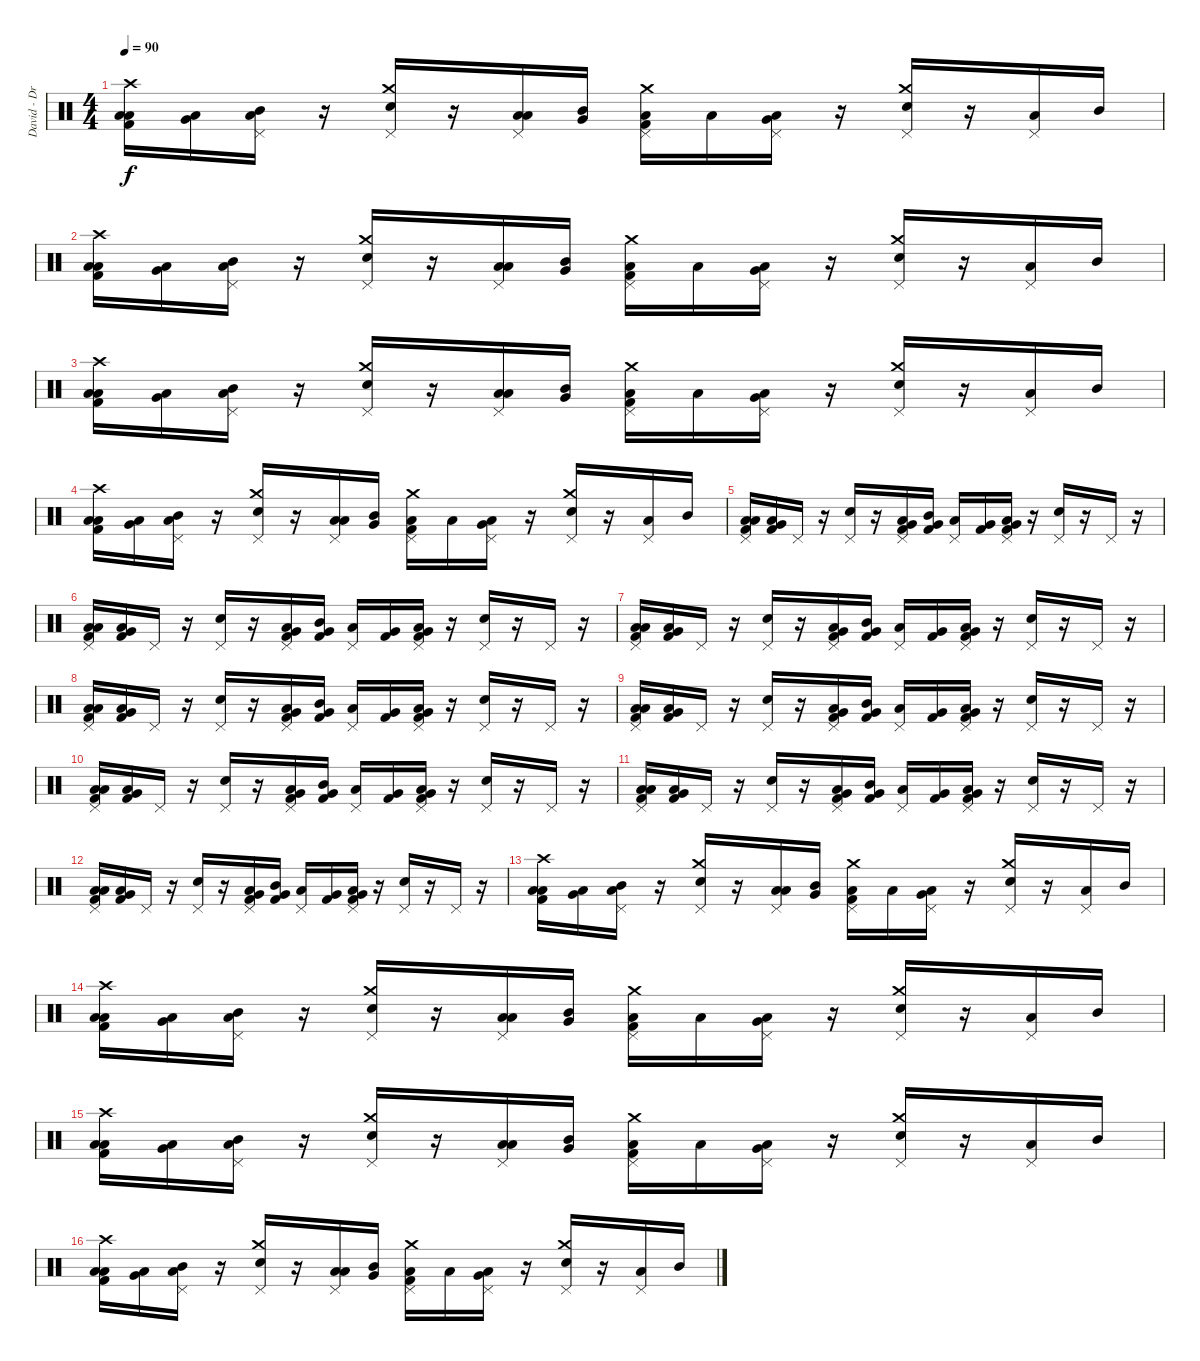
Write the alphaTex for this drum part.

\track ("David - Drums" "David - Dr") {instrument percussion}
\staff {score}
\articulation defaults
\ts (4 4)
\tempo 90
\clef neutral
\ks c
("Crash high (hit)" "Low Tom (hit)" "Low Floor Tom (hit)" "Kick (hit) 2").16{dy f} ("Very Low Tom (hit)" "Low Floor Tom (hit)").16 ("Pedal Hi-Hat (hit)" "Mid Tom (hit)" "Low Tom (hit)").16 r.16 ("Pedal Hi-Hat (hit)" "Crash medium (hit)" "Electric Snare (hit)").16 r.16 ("Pedal Hi-Hat (hit)" "Low Tom (hit)" "Low Floor Tom (hit)").16 ("Very Low Tom (hit)" "Mid Tom (hit)").16 ("Pedal Hi-Hat (hit)" "Crash medium (hit)" "Low Tom (hit)" "Kick (hit) 2").16 "Low Tom (hit)".16 ("Pedal Hi-Hat (hit)" "Very Low Tom (hit)" "Low Floor Tom (hit)").16 r.16 ("Pedal Hi-Hat (hit)" "Crash medium (hit)" "Electric Snare (hit)").16 r.16 ("Pedal Hi-Hat (hit)" "Low Tom (hit)").16 "Mid Tom (hit)".16 |
("Crash high (hit)" "Low Tom (hit)" "Low Floor Tom (hit)" "Kick (hit) 2").16 ("Very Low Tom (hit)" "Low Floor Tom (hit)").16 ("Pedal Hi-Hat (hit)" "Mid Tom (hit)" "Low Tom (hit)").16 r.16 ("Pedal Hi-Hat (hit)" "Crash medium (hit)" "Electric Snare (hit)").16 r.16 ("Pedal Hi-Hat (hit)" "Low Tom (hit)" "Low Floor Tom (hit)").16 ("Very Low Tom (hit)" "Mid Tom (hit)").16 ("Pedal Hi-Hat (hit)" "Crash medium (hit)" "Low Tom (hit)" "Kick (hit) 2").16 "Low Tom (hit)".16 ("Pedal Hi-Hat (hit)" "Very Low Tom (hit)" "Low Floor Tom (hit)").16 r.16 ("Pedal Hi-Hat (hit)" "Crash medium (hit)" "Electric Snare (hit)").16 r.16 ("Pedal Hi-Hat (hit)" "Low Tom (hit)").16 "Mid Tom (hit)".16 |
("Crash high (hit)" "Low Tom (hit)" "Low Floor Tom (hit)" "Kick (hit) 2").16 ("Very Low Tom (hit)" "Low Floor Tom (hit)").16 ("Pedal Hi-Hat (hit)" "Mid Tom (hit)" "Low Tom (hit)").16 r.16 ("Pedal Hi-Hat (hit)" "Crash medium (hit)" "Electric Snare (hit)").16 r.16 ("Pedal Hi-Hat (hit)" "Low Tom (hit)" "Low Floor Tom (hit)").16 ("Very Low Tom (hit)" "Mid Tom (hit)").16 ("Pedal Hi-Hat (hit)" "Crash medium (hit)" "Low Tom (hit)" "Kick (hit) 2").16 "Low Tom (hit)".16 ("Pedal Hi-Hat (hit)" "Very Low Tom (hit)" "Low Floor Tom (hit)").16 r.16 ("Pedal Hi-Hat (hit)" "Crash medium (hit)" "Electric Snare (hit)").16 r.16 ("Pedal Hi-Hat (hit)" "Low Tom (hit)").16 "Mid Tom (hit)".16 |
("Crash high (hit)" "Low Tom (hit)" "Low Floor Tom (hit)" "Kick (hit) 2").16 ("Very Low Tom (hit)" "Low Floor Tom (hit)").16 ("Pedal Hi-Hat (hit)" "Mid Tom (hit)" "Low Tom (hit)").16 r.16 ("Pedal Hi-Hat (hit)" "Crash medium (hit)" "Electric Snare (hit)").16 r.16 ("Pedal Hi-Hat (hit)" "Low Tom (hit)" "Low Floor Tom (hit)").16 ("Very Low Tom (hit)" "Mid Tom (hit)").16 ("Pedal Hi-Hat (hit)" "Crash medium (hit)" "Low Tom (hit)" "Kick (hit) 2").16 "Low Tom (hit)".16 ("Pedal Hi-Hat (hit)" "Very Low Tom (hit)" "Low Floor Tom (hit)").16 r.16 ("Pedal Hi-Hat (hit)" "Crash medium (hit)" "Electric Snare (hit)").16 r.16 ("Pedal Hi-Hat (hit)" "Low Tom (hit)").16 "Mid Tom (hit)".16 |
("Pedal Hi-Hat (hit)" "Low Tom (hit)" "Low Floor Tom (hit)" "Kick (hit) 2").16 ("Very Low Tom (hit)" "Low Floor Tom (hit)" "Kick (hit) 2").16 "Pedal Hi-Hat (hit)".16 r.16 ("Pedal Hi-Hat (hit)" "Electric Snare (hit)").16 r.16 ("Pedal Hi-Hat (hit)" "Very Low Tom (hit)" "Low Floor Tom (hit)" "Kick (hit) 2").16 ("Very Low Tom (hit)" "Mid Tom (hit)" "Kick (hit) 2").16 ("Pedal Hi-Hat (hit)" "Low Tom (hit)").16 ("Very Low Tom (hit)" "Kick (hit) 2").16 ("Pedal Hi-Hat (hit)" "Very Low Tom (hit)" "Low Floor Tom (hit)" "Kick (hit) 2").16 r.16 ("Pedal Hi-Hat (hit)" "Electric Snare (hit)").16 r.16 "Pedal Hi-Hat (hit)".16 r.16 |
("Pedal Hi-Hat (hit)" "Low Tom (hit)" "Low Floor Tom (hit)" "Kick (hit) 2").16 ("Very Low Tom (hit)" "Low Floor Tom (hit)" "Kick (hit) 2").16 "Pedal Hi-Hat (hit)".16 r.16 ("Pedal Hi-Hat (hit)" "Electric Snare (hit)").16 r.16 ("Pedal Hi-Hat (hit)" "Very Low Tom (hit)" "Low Floor Tom (hit)" "Kick (hit) 2").16 ("Very Low Tom (hit)" "Mid Tom (hit)" "Kick (hit) 2").16 ("Pedal Hi-Hat (hit)" "Low Tom (hit)").16 ("Very Low Tom (hit)" "Kick (hit) 2").16 ("Pedal Hi-Hat (hit)" "Very Low Tom (hit)" "Low Floor Tom (hit)" "Kick (hit) 2").16 r.16 ("Pedal Hi-Hat (hit)" "Electric Snare (hit)").16 r.16 "Pedal Hi-Hat (hit)".16 r.16 |
("Pedal Hi-Hat (hit)" "Low Tom (hit)" "Low Floor Tom (hit)" "Kick (hit) 2").16 ("Very Low Tom (hit)" "Low Floor Tom (hit)" "Kick (hit) 2").16 "Pedal Hi-Hat (hit)".16 r.16 ("Pedal Hi-Hat (hit)" "Electric Snare (hit)").16 r.16 ("Pedal Hi-Hat (hit)" "Very Low Tom (hit)" "Low Floor Tom (hit)" "Kick (hit) 2").16 ("Very Low Tom (hit)" "Mid Tom (hit)" "Kick (hit) 2").16 ("Pedal Hi-Hat (hit)" "Low Tom (hit)").16 ("Very Low Tom (hit)" "Kick (hit) 2").16 ("Pedal Hi-Hat (hit)" "Very Low Tom (hit)" "Low Floor Tom (hit)" "Kick (hit) 2").16 r.16 ("Pedal Hi-Hat (hit)" "Electric Snare (hit)").16 r.16 "Pedal Hi-Hat (hit)".16 r.16 |
("Pedal Hi-Hat (hit)" "Low Tom (hit)" "Low Floor Tom (hit)" "Kick (hit) 2").16 ("Very Low Tom (hit)" "Low Floor Tom (hit)" "Kick (hit) 2").16 "Pedal Hi-Hat (hit)".16 r.16 ("Pedal Hi-Hat (hit)" "Electric Snare (hit)").16 r.16 ("Pedal Hi-Hat (hit)" "Very Low Tom (hit)" "Low Floor Tom (hit)" "Kick (hit) 2").16 ("Very Low Tom (hit)" "Mid Tom (hit)" "Kick (hit) 2").16 ("Pedal Hi-Hat (hit)" "Low Tom (hit)").16 ("Very Low Tom (hit)" "Kick (hit) 2").16 ("Pedal Hi-Hat (hit)" "Very Low Tom (hit)" "Low Floor Tom (hit)" "Kick (hit) 2").16 r.16 ("Pedal Hi-Hat (hit)" "Electric Snare (hit)").16 r.16 "Pedal Hi-Hat (hit)".16 r.16 |
("Pedal Hi-Hat (hit)" "Low Tom (hit)" "Low Floor Tom (hit)" "Kick (hit) 2").16 ("Very Low Tom (hit)" "Low Floor Tom (hit)" "Kick (hit) 2").16 "Pedal Hi-Hat (hit)".16 r.16 ("Pedal Hi-Hat (hit)" "Electric Snare (hit)").16 r.16 ("Pedal Hi-Hat (hit)" "Very Low Tom (hit)" "Low Floor Tom (hit)" "Kick (hit) 2").16 ("Very Low Tom (hit)" "Mid Tom (hit)" "Kick (hit) 2").16 ("Pedal Hi-Hat (hit)" "Low Tom (hit)").16 ("Very Low Tom (hit)" "Kick (hit) 2").16 ("Pedal Hi-Hat (hit)" "Very Low Tom (hit)" "Low Floor Tom (hit)" "Kick (hit) 2").16 r.16 ("Pedal Hi-Hat (hit)" "Electric Snare (hit)").16 r.16 "Pedal Hi-Hat (hit)".16 r.16 |
("Pedal Hi-Hat (hit)" "Low Tom (hit)" "Low Floor Tom (hit)" "Kick (hit) 2").16 ("Very Low Tom (hit)" "Low Floor Tom (hit)" "Kick (hit) 2").16 "Pedal Hi-Hat (hit)".16 r.16 ("Pedal Hi-Hat (hit)" "Electric Snare (hit)").16 r.16 ("Pedal Hi-Hat (hit)" "Very Low Tom (hit)" "Low Floor Tom (hit)" "Kick (hit) 2").16 ("Very Low Tom (hit)" "Mid Tom (hit)" "Kick (hit) 2").16 ("Pedal Hi-Hat (hit)" "Low Tom (hit)").16 ("Very Low Tom (hit)" "Kick (hit) 2").16 ("Pedal Hi-Hat (hit)" "Very Low Tom (hit)" "Low Floor Tom (hit)" "Kick (hit) 2").16 r.16 ("Pedal Hi-Hat (hit)" "Electric Snare (hit)").16 r.16 "Pedal Hi-Hat (hit)".16 r.16 |
("Pedal Hi-Hat (hit)" "Low Tom (hit)" "Low Floor Tom (hit)" "Kick (hit) 2").16 ("Very Low Tom (hit)" "Low Floor Tom (hit)" "Kick (hit) 2").16 "Pedal Hi-Hat (hit)".16 r.16 ("Pedal Hi-Hat (hit)" "Electric Snare (hit)").16 r.16 ("Pedal Hi-Hat (hit)" "Very Low Tom (hit)" "Low Floor Tom (hit)" "Kick (hit) 2").16 ("Very Low Tom (hit)" "Mid Tom (hit)" "Kick (hit) 2").16 ("Pedal Hi-Hat (hit)" "Low Tom (hit)").16 ("Very Low Tom (hit)" "Kick (hit) 2").16 ("Pedal Hi-Hat (hit)" "Very Low Tom (hit)" "Low Floor Tom (hit)" "Kick (hit) 2").16 r.16 ("Pedal Hi-Hat (hit)" "Electric Snare (hit)").16 r.16 "Pedal Hi-Hat (hit)".16 r.16 |
("Pedal Hi-Hat (hit)" "Low Tom (hit)" "Low Floor Tom (hit)" "Kick (hit) 2").16 ("Very Low Tom (hit)" "Low Floor Tom (hit)" "Kick (hit) 2").16 "Pedal Hi-Hat (hit)".16 r.16 ("Pedal Hi-Hat (hit)" "Electric Snare (hit)").16 r.16 ("Pedal Hi-Hat (hit)" "Very Low Tom (hit)" "Low Floor Tom (hit)" "Kick (hit) 2").16 ("Very Low Tom (hit)" "Mid Tom (hit)" "Kick (hit) 2").16 ("Pedal Hi-Hat (hit)" "Low Tom (hit)").16 ("Very Low Tom (hit)" "Kick (hit) 2").16 ("Pedal Hi-Hat (hit)" "Very Low Tom (hit)" "Low Floor Tom (hit)" "Kick (hit) 2").16 r.16 ("Pedal Hi-Hat (hit)" "Electric Snare (hit)").16 r.16 "Pedal Hi-Hat (hit)".16 r.16 |
("Crash high (hit)" "Low Tom (hit)" "Low Floor Tom (hit)" "Kick (hit) 2").16 ("Very Low Tom (hit)" "Low Floor Tom (hit)").16 ("Pedal Hi-Hat (hit)" "Mid Tom (hit)" "Low Tom (hit)").16 r.16 ("Pedal Hi-Hat (hit)" "Crash medium (hit)" "Electric Snare (hit)").16 r.16 ("Pedal Hi-Hat (hit)" "Low Tom (hit)" "Low Floor Tom (hit)").16 ("Very Low Tom (hit)" "Mid Tom (hit)").16 ("Pedal Hi-Hat (hit)" "Crash medium (hit)" "Low Tom (hit)" "Kick (hit) 2").16 "Low Tom (hit)".16 ("Pedal Hi-Hat (hit)" "Very Low Tom (hit)" "Low Floor Tom (hit)").16 r.16 ("Pedal Hi-Hat (hit)" "Crash medium (hit)" "Electric Snare (hit)").16 r.16 ("Pedal Hi-Hat (hit)" "Low Tom (hit)").16 "Mid Tom (hit)".16 |
("Crash high (hit)" "Low Tom (hit)" "Low Floor Tom (hit)" "Kick (hit) 2").16 ("Very Low Tom (hit)" "Low Floor Tom (hit)").16 ("Pedal Hi-Hat (hit)" "Mid Tom (hit)" "Low Tom (hit)").16 r.16 ("Pedal Hi-Hat (hit)" "Crash medium (hit)" "Electric Snare (hit)").16 r.16 ("Pedal Hi-Hat (hit)" "Low Tom (hit)" "Low Floor Tom (hit)").16 ("Very Low Tom (hit)" "Mid Tom (hit)").16 ("Pedal Hi-Hat (hit)" "Crash medium (hit)" "Low Tom (hit)" "Kick (hit) 2").16 "Low Tom (hit)".16 ("Pedal Hi-Hat (hit)" "Very Low Tom (hit)" "Low Floor Tom (hit)").16 r.16 ("Pedal Hi-Hat (hit)" "Crash medium (hit)" "Electric Snare (hit)").16 r.16 ("Pedal Hi-Hat (hit)" "Low Tom (hit)").16 "Mid Tom (hit)".16 |
("Crash high (hit)" "Low Tom (hit)" "Low Floor Tom (hit)" "Kick (hit) 2").16 ("Very Low Tom (hit)" "Low Floor Tom (hit)").16 ("Pedal Hi-Hat (hit)" "Mid Tom (hit)" "Low Tom (hit)").16 r.16 ("Pedal Hi-Hat (hit)" "Crash medium (hit)" "Electric Snare (hit)").16 r.16 ("Pedal Hi-Hat (hit)" "Low Tom (hit)" "Low Floor Tom (hit)").16 ("Very Low Tom (hit)" "Mid Tom (hit)").16 ("Pedal Hi-Hat (hit)" "Crash medium (hit)" "Low Tom (hit)" "Kick (hit) 2").16 "Low Tom (hit)".16 ("Pedal Hi-Hat (hit)" "Very Low Tom (hit)" "Low Floor Tom (hit)").16 r.16 ("Pedal Hi-Hat (hit)" "Crash medium (hit)" "Electric Snare (hit)").16 r.16 ("Pedal Hi-Hat (hit)" "Low Tom (hit)").16 "Mid Tom (hit)".16 |
("Crash high (hit)" "Low Tom (hit)" "Low Floor Tom (hit)" "Kick (hit) 2").16 ("Very Low Tom (hit)" "Low Floor Tom (hit)").16 ("Pedal Hi-Hat (hit)" "Mid Tom (hit)" "Low Tom (hit)").16 r.16 ("Pedal Hi-Hat (hit)" "Crash medium (hit)" "Electric Snare (hit)").16 r.16 ("Pedal Hi-Hat (hit)" "Low Tom (hit)" "Low Floor Tom (hit)").16 ("Very Low Tom (hit)" "Mid Tom (hit)").16 ("Pedal Hi-Hat (hit)" "Crash medium (hit)" "Low Tom (hit)" "Kick (hit) 2").16 "Low Tom (hit)".16 ("Pedal Hi-Hat (hit)" "Very Low Tom (hit)" "Low Floor Tom (hit)").16 r.16 ("Pedal Hi-Hat (hit)" "Crash medium (hit)" "Electric Snare (hit)").16 r.16 ("Pedal Hi-Hat (hit)" "Low Tom (hit)").16 "Mid Tom (hit)".16
